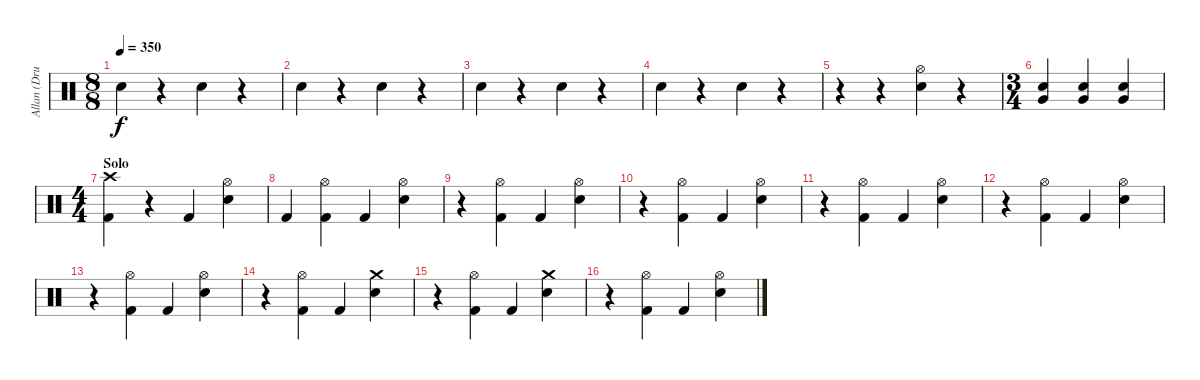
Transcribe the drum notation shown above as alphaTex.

\track ("Allan (Drums)" "Allan (Dru") {instrument percussion}
\staff {score}
\articulation defaults
\ts (8 8)
\tempo 350
\clef neutral
\ks c "Snare (hit) 2".4{dy f}
r.4 "Snare (hit) 2".4 r.4 |
"Snare (hit) 2".4 r.4 "Snare (hit) 2".4 r.4 |
"Snare (hit) 2".4 r.4 "Snare (hit) 2".4 r.4 |
"Snare (hit) 2".4 r.4 "Snare (hit) 2".4 r.4 |
r.4 r.4 ("Hi-Hat (open)" "Snare (hit) 2").4 r.4 |
\ts (3 4)
("Very Low Tom (hit)" "Snare (hit) 2").4 ("Very Low Tom (hit)" "Snare (hit) 2").4 ("Very Low Tom (hit)" "Snare (hit) 2").4 |
\ts (4 4)
\section ("" "Solo")
("Crash high (hit)" "Kick (hit) 2").4 r.4 "Kick (hit) 2".4 ("Hi-Hat (open)" "Snare (hit) 2").4 |
"Kick (hit) 2".4 ("Hi-Hat (open)" "Kick (hit) 2").4 "Kick (hit) 2".4 ("Hi-Hat (open)" "Snare (hit) 2").4 |
r.4 ("Hi-Hat (open)" "Kick (hit) 2").4 "Kick (hit) 2".4 ("Hi-Hat (open)" "Snare (hit) 2").4 |
r.4 ("Hi-Hat (open)" "Kick (hit) 2").4 "Kick (hit) 2".4 ("Hi-Hat (open)" "Snare (hit) 2").4 |
r.4 ("Hi-Hat (open)" "Kick (hit) 2").4 "Kick (hit) 2".4 ("Hi-Hat (open)" "Snare (hit) 2").4 |
r.4 ("Hi-Hat (open)" "Kick (hit) 2").4 "Kick (hit) 2".4 ("Hi-Hat (open)" "Snare (hit) 2").4 |
r.4 ("Hi-Hat (open)" "Kick (hit) 2").4 "Kick (hit) 2".4 ("Hi-Hat (open)" "Snare (hit) 2").4 |
r.4 ("Hi-Hat (open)" "Kick (hit) 2").4 "Kick (hit) 2".4 ("Crash medium (hit)" "Snare (hit) 2").4 |
r.4 ("Hi-Hat (open)" "Kick (hit) 2").4 "Kick (hit) 2".4 ("Crash medium (hit)" "Snare (hit) 2").4 |
r.4 ("Hi-Hat (open)" "Kick (hit) 2").4 "Kick (hit) 2".4 ("Hi-Hat (open)" "Snare (hit) 2").4
